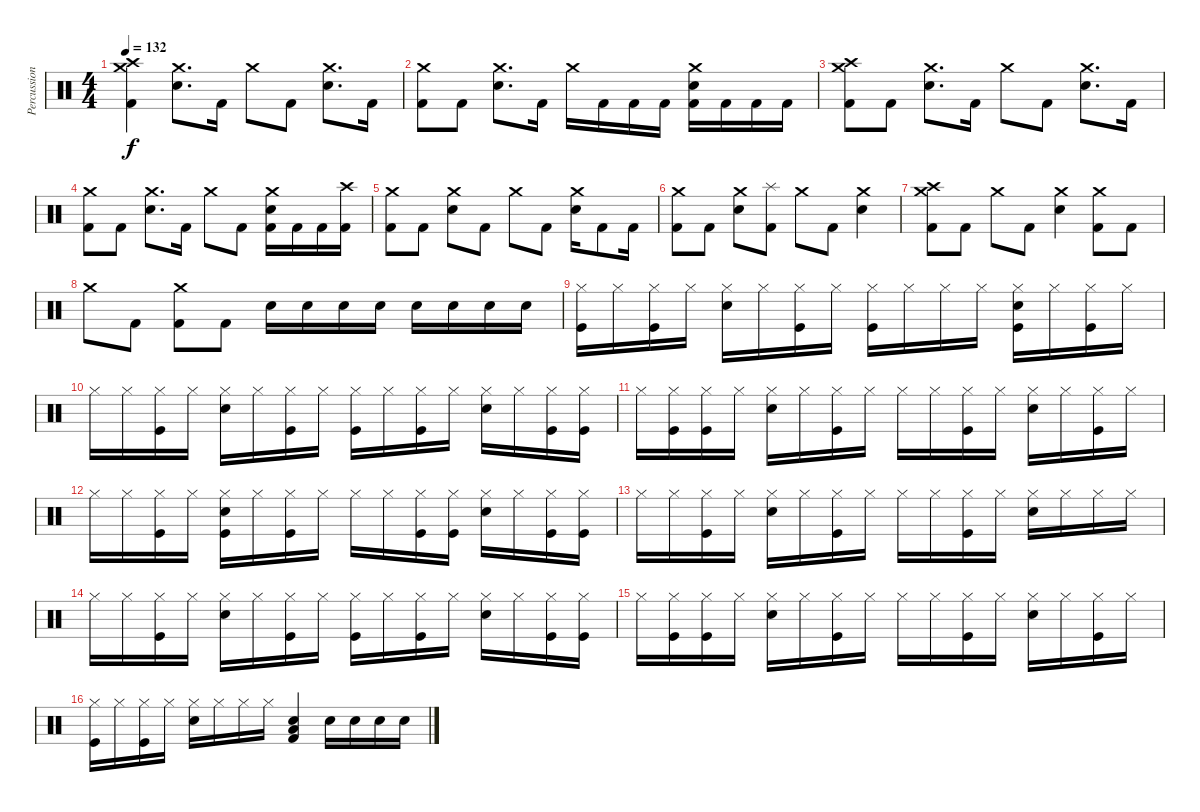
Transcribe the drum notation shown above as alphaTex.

\track ("Percussion" "Percussion") {instrument percussion}
\staff {score}
\articulation defaults
\ts (4 4)
\tempo 132
\clef neutral
\ks c
("Crash medium (hit)" "Crash high (hit)" "Kick (hit) 2").4{dy f} ("Crash medium (hit)" "Electric Snare (hit)").8{d} "Kick (hit) 2".16 "Crash medium (hit)".8 "Kick (hit) 2".8 ("Crash medium (hit)" "Electric Snare (hit)").8{d} "Kick (hit) 2".16 |
("Crash medium (hit)" "Kick (hit) 2").8 "Kick (hit) 2".8 ("Crash medium (hit)" "Electric Snare (hit)").8{d} "Kick (hit) 2".16 "Crash medium (hit)".16 "Kick (hit) 2".16 "Kick (hit) 2".16 "Kick (hit) 2".16 ("Crash medium (hit)" "Electric Snare (hit)" "Kick (hit) 2").16 "Kick (hit) 2".16 "Kick (hit) 2".16 "Kick (hit) 2".16 |
("Crash medium (hit)" "Crash high (hit)" "Kick (hit) 2").8 "Kick (hit) 2".8 ("Crash medium (hit)" "Electric Snare (hit)").8{d} "Kick (hit) 2".16 "Crash medium (hit)".8 "Kick (hit) 2".8 ("Crash medium (hit)" "Electric Snare (hit)").8{d} "Kick (hit) 2".16 |
("Crash medium (hit)" "Kick (hit) 2").8 "Kick (hit) 2".8 ("Crash medium (hit)" "Electric Snare (hit)").8{d} "Kick (hit) 2".16 "Crash medium (hit)".8 "Kick (hit) 2".8 ("Crash medium (hit)" "Electric Snare (hit)" "Kick (hit) 2").16 "Kick (hit) 2".16 "Kick (hit) 2".16 ("Crash high (hit)" "Kick (hit) 2").16 |
("Crash medium (hit)" "Kick (hit) 2").8 "Kick (hit) 2".8 ("Crash medium (hit)" "Electric Snare (hit)").8 "Kick (hit) 2".8 "Crash medium (hit)".8 "Kick (hit) 2".8 ("Crash medium (hit)" "Electric Snare (hit)").16 "Kick (hit) 2".8 "Kick (hit) 2".16 |
("Crash medium (hit)" "Kick (hit) 2").8 "Kick (hit) 2".8 ("Crash medium (hit)" "Electric Snare (hit)").8 ("Splash (hit)" "Kick (hit) 2").8 "Crash medium (hit)".8 "Kick (hit) 2".8 ("Crash medium (hit)" "Electric Snare (hit)").4 |
("Crash medium (hit)" "Crash high (hit)" "Kick (hit) 2").8 "Kick (hit) 2".8 "Crash medium (hit)".8 "Kick (hit) 2".8 ("Crash medium (hit)" "Electric Snare (hit)").4 ("Crash medium (hit)" "Kick (hit) 2").8 "Kick (hit) 2".8 |
"Crash medium (hit)".8 "Kick (hit) 2".8 ("Crash medium (hit)" "Kick (hit) 2").8 "Kick (hit) 2".8 "Electric Snare (hit)".16 "Electric Snare (hit)".16 "Electric Snare (hit)".16 "Electric Snare (hit)".16 "Electric Snare (hit)".16 "Electric Snare (hit)".16 "Electric Snare (hit)".16 "Electric Snare (hit)".16 |
("Hi-Hat (closed)" "Kick (hit)").16 "Hi-Hat (closed)".16 ("Hi-Hat (closed)" "Kick (hit)").16 "Hi-Hat (closed)".16 ("Hi-Hat (closed)" "Hand Clap (hit)").16 "Hi-Hat (closed)".16 ("Hi-Hat (closed)" "Kick (hit)").16 "Hi-Hat (closed)".16 ("Hi-Hat (closed)" "Kick (hit)").16 "Hi-Hat (closed)".16 "Hi-Hat (closed)".16 "Hi-Hat (closed)".16 ("Hi-Hat (closed)" "Hand Clap (hit)" "Kick (hit)").16 "Hi-Hat (closed)".16 ("Hi-Hat (closed)" "Kick (hit)").16 "Hi-Hat (closed)".16 |
"Hi-Hat (closed)".16 "Hi-Hat (closed)".16 ("Hi-Hat (closed)" "Kick (hit)").16 "Hi-Hat (closed)".16 ("Hi-Hat (closed)" "Hand Clap (hit)").16 "Hi-Hat (closed)".16 ("Hi-Hat (closed)" "Kick (hit)").16 "Hi-Hat (closed)".16 ("Hi-Hat (closed)" "Kick (hit)").16 "Hi-Hat (closed)".16 ("Hi-Hat (closed)" "Kick (hit)").16 "Hi-Hat (closed)".16 ("Hi-Hat (closed)" "Hand Clap (hit)").16 "Hi-Hat (closed)".16 ("Hi-Hat (closed)" "Kick (hit)").16 ("Hi-Hat (closed)" "Kick (hit)").16 |
"Hi-Hat (closed)".16 ("Hi-Hat (closed)" "Kick (hit)").16 ("Hi-Hat (closed)" "Kick (hit)").16 "Hi-Hat (closed)".16 ("Hi-Hat (closed)" "Hand Clap (hit)").16 "Hi-Hat (closed)".16 ("Hi-Hat (closed)" "Kick (hit)").16 "Hi-Hat (closed)".16 "Hi-Hat (closed)".16 "Hi-Hat (closed)".16 ("Hi-Hat (closed)" "Kick (hit)").16 "Hi-Hat (closed)".16 ("Hi-Hat (closed)" "Hand Clap (hit)").16 "Hi-Hat (closed)".16 ("Hi-Hat (closed)" "Kick (hit)").16 "Hi-Hat (closed)".16 |
"Hi-Hat (closed)".16 "Hi-Hat (closed)".16 ("Hi-Hat (closed)" "Kick (hit)").16 "Hi-Hat (closed)".16 ("Hi-Hat (closed)" "Hand Clap (hit)" "Kick (hit)").16 "Hi-Hat (closed)".16 ("Hi-Hat (closed)" "Kick (hit)").16 "Hi-Hat (closed)".16 "Hi-Hat (closed)".16 "Hi-Hat (closed)".16 ("Hi-Hat (closed)" "Kick (hit)").16 ("Hi-Hat (closed)" "Kick (hit)").16 ("Hi-Hat (closed)" "Hand Clap (hit)").16 "Hi-Hat (closed)".16 ("Hi-Hat (closed)" "Kick (hit)").16 ("Hi-Hat (closed)" "Kick (hit)").16 |
"Hi-Hat (closed)".16 "Hi-Hat (closed)".16 ("Hi-Hat (closed)" "Kick (hit)").16 "Hi-Hat (closed)".16 ("Hi-Hat (closed)" "Hand Clap (hit)").16 "Hi-Hat (closed)".16 ("Hi-Hat (closed)" "Kick (hit)").16 "Hi-Hat (closed)".16 "Hi-Hat (closed)".16 "Hi-Hat (closed)".16 ("Hi-Hat (closed)" "Kick (hit)").16 "Hi-Hat (closed)".16 ("Hi-Hat (closed)" "Hand Clap (hit)").16 "Hi-Hat (closed)".16 "Hi-Hat (closed)".16 "Hi-Hat (closed)".16 |
"Hi-Hat (closed)".16 "Hi-Hat (closed)".16 ("Hi-Hat (closed)" "Kick (hit)").16 "Hi-Hat (closed)".16 ("Hi-Hat (closed)" "Hand Clap (hit)").16 "Hi-Hat (closed)".16 ("Hi-Hat (closed)" "Kick (hit)").16 "Hi-Hat (closed)".16 ("Hi-Hat (closed)" "Kick (hit)").16 "Hi-Hat (closed)".16 ("Hi-Hat (closed)" "Kick (hit)").16 "Hi-Hat (closed)".16 ("Hi-Hat (closed)" "Hand Clap (hit)").16 "Hi-Hat (closed)".16 ("Hi-Hat (closed)" "Kick (hit)").16 ("Hi-Hat (closed)" "Kick (hit)").16 |
"Hi-Hat (closed)".16 ("Hi-Hat (closed)" "Kick (hit)").16 ("Hi-Hat (closed)" "Kick (hit)").16 "Hi-Hat (closed)".16 ("Hi-Hat (closed)" "Hand Clap (hit)").16 "Hi-Hat (closed)".16 ("Hi-Hat (closed)" "Kick (hit)").16 "Hi-Hat (closed)".16 "Hi-Hat (closed)".16 "Hi-Hat (closed)".16 ("Hi-Hat (closed)" "Kick (hit)").16 "Hi-Hat (closed)".16 ("Hi-Hat (closed)" "Hand Clap (hit)").16 "Hi-Hat (closed)".16 ("Hi-Hat (closed)" "Kick (hit)").16 "Hi-Hat (closed)".16 |
("Hi-Hat (closed)" "Kick (hit)").16 "Hi-Hat (closed)".16 ("Hi-Hat (closed)" "Kick (hit)").16 "Hi-Hat (closed)".16 ("Hi-Hat (closed)" "Hand Clap (hit)").16 "Hi-Hat (closed)".16 "Hi-Hat (closed)".16 "Hi-Hat (closed)".16 ("Electric Snare (hit)" "Low Floor Tom (hit)" "Kick (hit) 2").4 "Electric Snare (hit)".16 "Electric Snare (hit)".16 "Electric Snare (hit)".16 "Electric Snare (hit)".16
